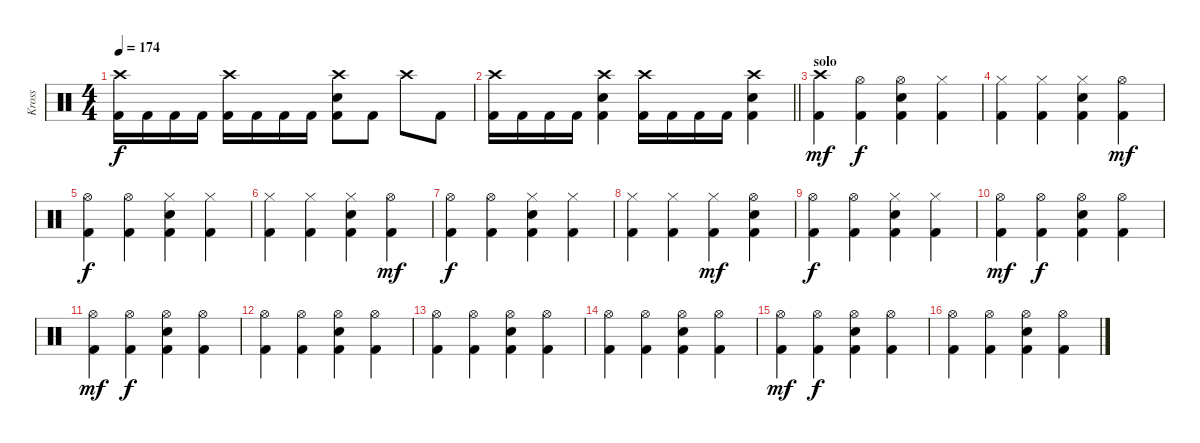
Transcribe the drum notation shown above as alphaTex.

\track ("Kross" "Kross") {instrument percussion}
\staff {score}
\articulation defaults
\ts (4 4)
\tempo 174
\clef neutral
\ks c
("Crash high (hit)" "Kick (hit) 2").16{dy f} "Kick (hit) 2".16 "Kick (hit) 2".16 "Kick (hit) 2".16 ("Crash high (hit)" "Kick (hit) 2").16 "Kick (hit) 2".16 "Kick (hit) 2".16 "Kick (hit) 2".16 ("Crash high (hit)" "Electric Snare (hit)" "Kick (hit) 2").8 "Kick (hit) 2".8 "Crash high (hit)".8 "Kick (hit) 2".8 |
\barLineRight lightlight
("Crash high (hit)" "Kick (hit) 2").16 "Kick (hit) 2".16 "Kick (hit) 2".16 "Kick (hit) 2".16 ("Crash high (hit)" "Electric Snare (hit)" "Kick (hit) 2").4 ("Crash high (hit)" "Kick (hit) 2").16 "Kick (hit) 2".16 "Kick (hit) 2".16 "Kick (hit) 2".16 ("Crash high (hit)" "Electric Snare (hit)" "Kick (hit) 2").4 |
\section ("" "solo")
("Crash high (hit)" "Kick (hit) 2").4{dy mf} ("Hi-Hat (open)" "Kick (hit) 2").4{dy f} ("Hi-Hat (open)" "Electric Snare (hit)" "Kick (hit) 2").4 ("Hi-Hat (closed)" "Kick (hit) 2").4 |
("Hi-Hat (closed)" "Kick (hit) 2").4 ("Hi-Hat (closed)" "Kick (hit) 2").4 ("Hi-Hat (closed)" "Electric Snare (hit)" "Kick (hit) 2").4 ("Hi-Hat (open)" "Kick (hit) 2").4{dy mf} |
("Hi-Hat (open)" "Kick (hit) 2").4{dy f} ("Hi-Hat (open)" "Kick (hit) 2").4 ("Hi-Hat (closed)" "Electric Snare (hit)" "Kick (hit) 2").4 ("Hi-Hat (closed)" "Kick (hit) 2").4 |
("Hi-Hat (closed)" "Kick (hit) 2").4 ("Hi-Hat (closed)" "Kick (hit) 2").4 ("Hi-Hat (closed)" "Electric Snare (hit)" "Kick (hit) 2").4 ("Hi-Hat (open)" "Kick (hit) 2").4{dy mf} |
("Hi-Hat (open)" "Kick (hit) 2").4{dy f} ("Hi-Hat (open)" "Kick (hit) 2").4 ("Hi-Hat (closed)" "Electric Snare (hit)" "Kick (hit) 2").4 ("Hi-Hat (closed)" "Kick (hit) 2").4 |
("Hi-Hat (closed)" "Kick (hit) 2").4 ("Hi-Hat (closed)" "Kick (hit) 2").4 ("Hi-Hat (closed)" "Kick (hit) 2").4{dy mf} ("Hi-Hat (open)" "Electric Snare (hit)" "Kick (hit) 2").4 |
("Hi-Hat (open)" "Kick (hit) 2").4{dy f} ("Hi-Hat (open)" "Kick (hit) 2").4 ("Hi-Hat (closed)" "Electric Snare (hit)" "Kick (hit) 2").4 ("Hi-Hat (closed)" "Kick (hit) 2").4 |
("Hi-Hat (open)" "Kick (hit) 2").4{dy mf} ("Hi-Hat (open)" "Kick (hit) 2").4{dy f} ("Hi-Hat (open)" "Electric Snare (hit)" "Kick (hit) 2").4 ("Hi-Hat (open)" "Kick (hit) 2").4 |
("Hi-Hat (open)" "Kick (hit) 2").4{dy mf} ("Hi-Hat (open)" "Kick (hit) 2").4{dy f} ("Hi-Hat (open)" "Electric Snare (hit)" "Kick (hit) 2").4 ("Hi-Hat (open)" "Kick (hit) 2").4 |
("Hi-Hat (open)" "Kick (hit) 2").4 ("Hi-Hat (open)" "Kick (hit) 2").4 ("Hi-Hat (open)" "Electric Snare (hit)" "Kick (hit) 2").4 ("Hi-Hat (open)" "Kick (hit) 2").4 |
("Hi-Hat (open)" "Kick (hit) 2").4 ("Hi-Hat (open)" "Kick (hit) 2").4 ("Hi-Hat (open)" "Electric Snare (hit)" "Kick (hit) 2").4 ("Hi-Hat (open)" "Kick (hit) 2").4 |
("Hi-Hat (open)" "Kick (hit) 2").4 ("Hi-Hat (open)" "Kick (hit) 2").4 ("Hi-Hat (open)" "Electric Snare (hit)" "Kick (hit) 2").4 ("Hi-Hat (open)" "Kick (hit) 2").4 |
("Hi-Hat (open)" "Kick (hit) 2").4{dy mf} ("Hi-Hat (open)" "Kick (hit) 2").4{dy f} ("Hi-Hat (open)" "Electric Snare (hit)" "Kick (hit) 2").4 ("Hi-Hat (open)" "Kick (hit) 2").4 |
("Hi-Hat (open)" "Kick (hit) 2").4 ("Hi-Hat (open)" "Kick (hit) 2").4 ("Hi-Hat (open)" "Electric Snare (hit)" "Kick (hit) 2").4 ("Hi-Hat (open)" "Kick (hit) 2").4
